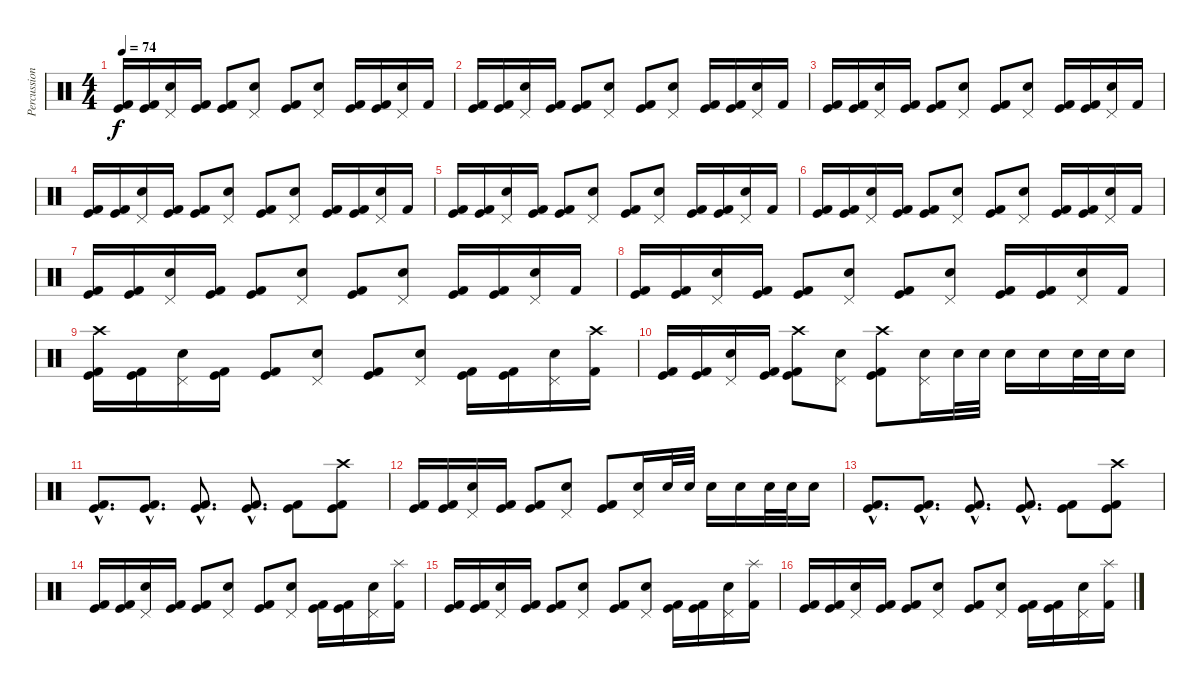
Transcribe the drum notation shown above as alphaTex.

\track ("Percussion" "Percussion") {instrument percussion}
\staff {score}
\articulation defaults
\ts (4 4)
\tempo 74
\clef neutral
\ks c
("Kick (hit) 2" "Kick (hit)").16{dy f} ("Kick (hit) 2" "Kick (hit)").16 ("Electric Snare (hit)" "Pedal Hi-Hat (hit)").16 ("Kick (hit) 2" "Kick (hit)").16 ("Kick (hit) 2" "Kick (hit)").8 ("Electric Snare (hit)" "Pedal Hi-Hat (hit)").8 ("Kick (hit) 2" "Kick (hit)").8 ("Electric Snare (hit)" "Pedal Hi-Hat (hit)").8 ("Kick (hit) 2" "Kick (hit)").16 ("Kick (hit) 2" "Kick (hit)").16 ("Electric Snare (hit)" "Pedal Hi-Hat (hit)").16 "Kick (hit) 2".16 |
("Kick (hit) 2" "Kick (hit)").16 ("Kick (hit) 2" "Kick (hit)").16 ("Electric Snare (hit)" "Pedal Hi-Hat (hit)").16 ("Kick (hit) 2" "Kick (hit)").16 ("Kick (hit) 2" "Kick (hit)").8 ("Electric Snare (hit)" "Pedal Hi-Hat (hit)").8 ("Kick (hit) 2" "Kick (hit)").8 ("Electric Snare (hit)" "Pedal Hi-Hat (hit)").8 ("Kick (hit) 2" "Kick (hit)").16 ("Kick (hit) 2" "Kick (hit)").16 ("Electric Snare (hit)" "Pedal Hi-Hat (hit)").16 "Kick (hit) 2".16 |
("Kick (hit) 2" "Kick (hit)").16 ("Kick (hit) 2" "Kick (hit)").16 ("Electric Snare (hit)" "Pedal Hi-Hat (hit)").16 ("Kick (hit) 2" "Kick (hit)").16 ("Kick (hit) 2" "Kick (hit)").8 ("Electric Snare (hit)" "Pedal Hi-Hat (hit)").8 ("Kick (hit) 2" "Kick (hit)").8 ("Electric Snare (hit)" "Pedal Hi-Hat (hit)").8 ("Kick (hit) 2" "Kick (hit)").16 ("Kick (hit) 2" "Kick (hit)").16 ("Electric Snare (hit)" "Pedal Hi-Hat (hit)").16 "Kick (hit) 2".16 |
("Kick (hit) 2" "Kick (hit)").16 ("Kick (hit) 2" "Kick (hit)").16 ("Electric Snare (hit)" "Pedal Hi-Hat (hit)").16 ("Kick (hit) 2" "Kick (hit)").16 ("Kick (hit) 2" "Kick (hit)").8 ("Electric Snare (hit)" "Pedal Hi-Hat (hit)").8 ("Kick (hit) 2" "Kick (hit)").8 ("Electric Snare (hit)" "Pedal Hi-Hat (hit)").8 ("Kick (hit) 2" "Kick (hit)").16 ("Kick (hit) 2" "Kick (hit)").16 ("Electric Snare (hit)" "Pedal Hi-Hat (hit)").16 "Kick (hit) 2".16 |
("Kick (hit) 2" "Kick (hit)").16 ("Kick (hit) 2" "Kick (hit)").16 ("Electric Snare (hit)" "Pedal Hi-Hat (hit)").16 ("Kick (hit) 2" "Kick (hit)").16 ("Kick (hit) 2" "Kick (hit)").8 ("Electric Snare (hit)" "Pedal Hi-Hat (hit)").8 ("Kick (hit) 2" "Kick (hit)").8 ("Electric Snare (hit)" "Pedal Hi-Hat (hit)").8 ("Kick (hit) 2" "Kick (hit)").16 ("Kick (hit) 2" "Kick (hit)").16 ("Electric Snare (hit)" "Pedal Hi-Hat (hit)").16 "Kick (hit) 2".16 |
("Kick (hit) 2" "Kick (hit)").16 ("Kick (hit) 2" "Kick (hit)").16 ("Electric Snare (hit)" "Pedal Hi-Hat (hit)").16 ("Kick (hit) 2" "Kick (hit)").16 ("Kick (hit) 2" "Kick (hit)").8 ("Electric Snare (hit)" "Pedal Hi-Hat (hit)").8 ("Kick (hit) 2" "Kick (hit)").8 ("Electric Snare (hit)" "Pedal Hi-Hat (hit)").8 ("Kick (hit) 2" "Kick (hit)").16 ("Kick (hit) 2" "Kick (hit)").16 ("Electric Snare (hit)" "Pedal Hi-Hat (hit)").16 "Kick (hit) 2".16 |
("Kick (hit) 2" "Kick (hit)").16 ("Kick (hit) 2" "Kick (hit)").16 ("Electric Snare (hit)" "Pedal Hi-Hat (hit)").16 ("Kick (hit) 2" "Kick (hit)").16 ("Kick (hit) 2" "Kick (hit)").8 ("Electric Snare (hit)" "Pedal Hi-Hat (hit)").8 ("Kick (hit) 2" "Kick (hit)").8 ("Electric Snare (hit)" "Pedal Hi-Hat (hit)").8 ("Kick (hit) 2" "Kick (hit)").16 ("Kick (hit) 2" "Kick (hit)").16 ("Electric Snare (hit)" "Pedal Hi-Hat (hit)").16 "Kick (hit) 2".16 |
("Kick (hit) 2" "Kick (hit)").16 ("Kick (hit) 2" "Kick (hit)").16 ("Electric Snare (hit)" "Pedal Hi-Hat (hit)").16 ("Kick (hit) 2" "Kick (hit)").16 ("Kick (hit) 2" "Kick (hit)").8 ("Electric Snare (hit)" "Pedal Hi-Hat (hit)").8 ("Kick (hit) 2" "Kick (hit)").8 ("Electric Snare (hit)" "Pedal Hi-Hat (hit)").8 ("Kick (hit) 2" "Kick (hit)").16 ("Kick (hit) 2" "Kick (hit)").16 ("Electric Snare (hit)" "Pedal Hi-Hat (hit)").16 "Kick (hit) 2".16 |
("Kick (hit) 2" "Kick (hit)" "Crash high (hit)").16 ("Kick (hit) 2" "Kick (hit)").16 ("Electric Snare (hit)" "Pedal Hi-Hat (hit)").16 ("Kick (hit) 2" "Kick (hit)").16 ("Kick (hit) 2" "Kick (hit)").8 ("Electric Snare (hit)" "Pedal Hi-Hat (hit)").8 ("Kick (hit) 2" "Kick (hit)").8 ("Electric Snare (hit)" "Pedal Hi-Hat (hit)").8 ("Kick (hit) 2" "Kick (hit)").16 ("Kick (hit) 2" "Kick (hit)").16 ("Electric Snare (hit)" "Pedal Hi-Hat (hit)").16 ("Kick (hit) 2" "Crash high (hit)").16 |
("Kick (hit) 2" "Kick (hit)").16 ("Kick (hit) 2" "Kick (hit)").16 ("Electric Snare (hit)" "Pedal Hi-Hat (hit)").16 ("Kick (hit) 2" "Kick (hit)").16 ("Kick (hit) 2" "Kick (hit)" "Crash high (hit)").8 ("Electric Snare (hit)" "Pedal Hi-Hat (hit)").8 ("Kick (hit) 2" "Kick (hit)" "Crash high (hit)").8 ("Electric Snare (hit)" "Pedal Hi-Hat (hit)").16 "Electric Snare (hit)".32 "Electric Snare (hit)".32 "Electric Snare (hit)".16 "Electric Snare (hit)".16 "Electric Snare (hit)".32 "Electric Snare (hit)".32 "Electric Snare (hit)".16 |
("Kick (hit) 2"{hac} "Kick (hit)"{hac}).8{d} ("Kick (hit) 2"{hac} "Kick (hit)"{hac}).8{d} ("Kick (hit) 2"{hac} "Kick (hit)"{hac}).8{d} ("Kick (hit) 2"{hac} "Kick (hit)"{hac}).8{d} ("Kick (hit) 2" "Kick (hit)").8 ("Kick (hit) 2" "Kick (hit)" "Crash high (hit)").8 |
("Kick (hit) 2" "Kick (hit)").16 ("Kick (hit) 2" "Kick (hit)").16 ("Electric Snare (hit)" "Pedal Hi-Hat (hit)").16 ("Kick (hit) 2" "Kick (hit)").16 ("Kick (hit) 2" "Kick (hit)").8 ("Electric Snare (hit)" "Pedal Hi-Hat (hit)").8 ("Kick (hit) 2" "Kick (hit)").8 ("Electric Snare (hit)" "Pedal Hi-Hat (hit)").16 "Electric Snare (hit)".32 "Electric Snare (hit)".32 "Electric Snare (hit)".16 "Electric Snare (hit)".16 "Electric Snare (hit)".32 "Electric Snare (hit)".32 "Electric Snare (hit)".16 |
("Kick (hit) 2"{hac} "Kick (hit)"{hac}).8{d} ("Kick (hit) 2"{hac} "Kick (hit)"{hac}).8{d} ("Kick (hit) 2"{hac} "Kick (hit)"{hac}).8{d} ("Kick (hit) 2"{hac} "Kick (hit)"{hac}).8{d} ("Kick (hit) 2" "Kick (hit)").8 ("Kick (hit) 2" "Kick (hit)" "Crash high (hit)").8 |
("Kick (hit) 2" "Kick (hit)").16 ("Kick (hit) 2" "Kick (hit)").16 ("Electric Snare (hit)" "Pedal Hi-Hat (hit)").16 ("Kick (hit) 2" "Kick (hit)").16 ("Kick (hit) 2" "Kick (hit)").8 ("Electric Snare (hit)" "Pedal Hi-Hat (hit)").8 ("Kick (hit) 2" "Kick (hit)").8 ("Electric Snare (hit)" "Pedal Hi-Hat (hit)").8 ("Kick (hit) 2" "Kick (hit)").16 ("Kick (hit) 2" "Kick (hit)").16 ("Electric Snare (hit)" "Pedal Hi-Hat (hit)").16 ("Kick (hit) 2" "Splash (hit)").16 |
("Kick (hit) 2" "Kick (hit)").16 ("Kick (hit) 2" "Kick (hit)").16 ("Electric Snare (hit)" "Pedal Hi-Hat (hit)").16 ("Kick (hit) 2" "Kick (hit)").16 ("Kick (hit) 2" "Kick (hit)").8 ("Electric Snare (hit)" "Pedal Hi-Hat (hit)").8 ("Kick (hit) 2" "Kick (hit)").8 ("Electric Snare (hit)" "Pedal Hi-Hat (hit)").8 ("Kick (hit) 2" "Kick (hit)").16 ("Kick (hit) 2" "Kick (hit)").16 ("Electric Snare (hit)" "Pedal Hi-Hat (hit)").16 ("Kick (hit) 2" "Splash (hit)").16 |
("Kick (hit) 2" "Kick (hit)").16 ("Kick (hit) 2" "Kick (hit)").16 ("Electric Snare (hit)" "Pedal Hi-Hat (hit)").16 ("Kick (hit) 2" "Kick (hit)").16 ("Kick (hit) 2" "Kick (hit)").8 ("Electric Snare (hit)" "Pedal Hi-Hat (hit)").8 ("Kick (hit) 2" "Kick (hit)").8 ("Electric Snare (hit)" "Pedal Hi-Hat (hit)").8 ("Kick (hit) 2" "Kick (hit)").16 ("Kick (hit) 2" "Kick (hit)").16 ("Electric Snare (hit)" "Pedal Hi-Hat (hit)").16 ("Kick (hit) 2" "Splash (hit)").16
